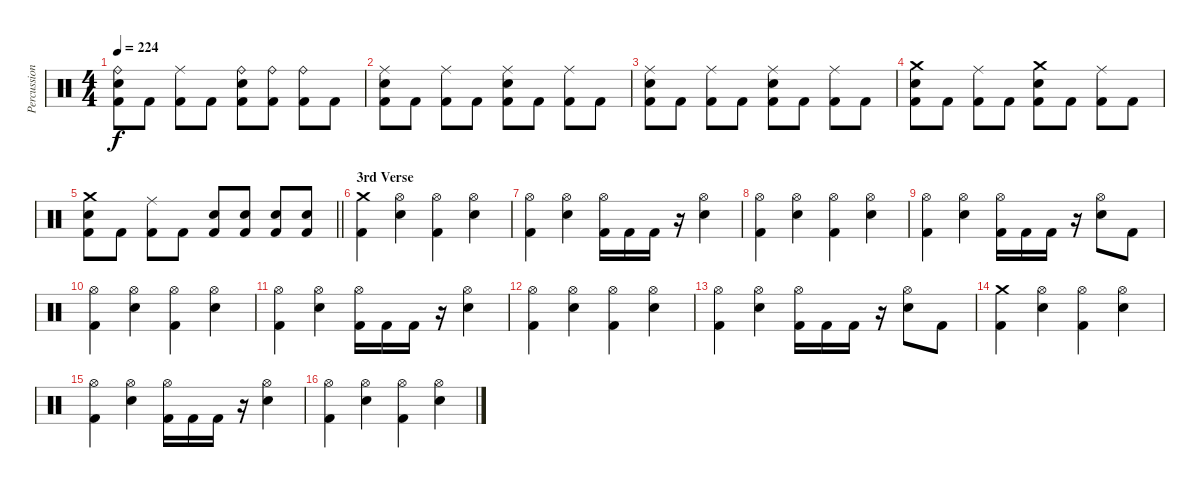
\track ("Percussion" "Percussion") {instrument percussion}
\staff {score}
\articulation defaults
\ts (4 4)
\tempo 224
\clef neutral
\ks c
("Kick (hit) 2" "Snare (hit) 2" "Ride (bell)").8{dy f} "Kick (hit) 2".8 ("Kick (hit) 2" "Ride (middle)").8 "Kick (hit) 2".8 ("Kick (hit) 2" "Snare (hit) 2" "Ride (bell)").8 ("Kick (hit) 2" "Ride (bell)").8 ("Kick (hit) 2" "Ride (bell)").8 "Kick (hit) 2".8 |
("Kick (hit) 2" "Snare (hit) 2" "Ride (middle)").8 "Kick (hit) 2".8 ("Kick (hit) 2" "Ride (middle)").8 "Kick (hit) 2".8 ("Kick (hit) 2" "Snare (hit) 2" "Ride (middle)").8 "Kick (hit) 2".8 ("Kick (hit) 2" "Ride (middle)").8 "Kick (hit) 2".8 |
("Kick (hit) 2" "Snare (hit) 2" "Ride (middle)").8 "Kick (hit) 2".8 ("Kick (hit) 2" "Ride (middle)").8 "Kick (hit) 2".8 ("Kick (hit) 2" "Snare (hit) 2" "Ride (middle)").8 "Kick (hit) 2".8 ("Kick (hit) 2" "Ride (middle)").8 "Kick (hit) 2".8 |
("Kick (hit) 2" "Snare (hit) 2" "Crash medium (hit)").8 "Kick (hit) 2".8 ("Kick (hit) 2" "Ride (middle)").8 "Kick (hit) 2".8 ("Kick (hit) 2" "Snare (hit) 2" "Crash medium (hit)").8 "Kick (hit) 2".8 ("Kick (hit) 2" "Ride (middle)").8 "Kick (hit) 2".8 |
\barLineRight lightlight
("Kick (hit) 2" "Snare (hit) 2" "Crash medium (hit)").8 "Kick (hit) 2".8 ("Kick (hit) 2" "Ride (middle)").8 "Kick (hit) 2".8 ("Kick (hit) 2" "Snare (hit) 2").8 ("Kick (hit) 2" "Snare (hit) 2").8 ("Kick (hit) 2" "Snare (hit) 2").8 ("Kick (hit) 2" "Snare (hit) 2").8 |
\section ("" "3rd Verse")
("Kick (hit) 2" "Crash medium (hit)").4 ("Snare (hit) 2" "Hi-Hat (open)").4 ("Kick (hit) 2" "Hi-Hat (open)").4 ("Snare (hit) 2" "Hi-Hat (open)").4 |
("Kick (hit) 2" "Hi-Hat (open)").4 ("Snare (hit) 2" "Hi-Hat (open)").4 ("Kick (hit) 2" "Hi-Hat (open)").16 "Kick (hit) 2".16 "Kick (hit) 2".16 r.16 ("Snare (hit) 2" "Hi-Hat (open)").4 |
("Kick (hit) 2" "Hi-Hat (open)").4 ("Snare (hit) 2" "Hi-Hat (open)").4 ("Kick (hit) 2" "Hi-Hat (open)").4 ("Snare (hit) 2" "Hi-Hat (open)").4 |
("Kick (hit) 2" "Hi-Hat (open)").4 ("Snare (hit) 2" "Hi-Hat (open)").4 ("Kick (hit) 2" "Hi-Hat (open)").16 "Kick (hit) 2".16 "Kick (hit) 2".16 r.16 ("Snare (hit) 2" "Hi-Hat (open)").8 "Kick (hit) 2".8 |
("Kick (hit) 2" "Hi-Hat (open)").4 ("Snare (hit) 2" "Hi-Hat (open)").4 ("Kick (hit) 2" "Hi-Hat (open)").4 ("Snare (hit) 2" "Hi-Hat (open)").4 |
("Kick (hit) 2" "Hi-Hat (open)").4 ("Snare (hit) 2" "Hi-Hat (open)").4 ("Kick (hit) 2" "Hi-Hat (open)").16 "Kick (hit) 2".16 "Kick (hit) 2".16 r.16 ("Snare (hit) 2" "Hi-Hat (open)").4 |
("Kick (hit) 2" "Hi-Hat (open)").4 ("Snare (hit) 2" "Hi-Hat (open)").4 ("Kick (hit) 2" "Hi-Hat (open)").4 ("Snare (hit) 2" "Hi-Hat (open)").4 |
("Kick (hit) 2" "Hi-Hat (open)").4 ("Snare (hit) 2" "Hi-Hat (open)").4 ("Kick (hit) 2" "Hi-Hat (open)").16 "Kick (hit) 2".16 "Kick (hit) 2".16 r.16 ("Snare (hit) 2" "Hi-Hat (open)").8 "Kick (hit) 2".8 |
("Kick (hit) 2" "Crash medium (hit)").4 ("Snare (hit) 2" "Hi-Hat (open)").4 ("Kick (hit) 2" "Hi-Hat (open)").4 ("Snare (hit) 2" "Hi-Hat (open)").4 |
("Kick (hit) 2" "Hi-Hat (open)").4 ("Snare (hit) 2" "Hi-Hat (open)").4 ("Kick (hit) 2" "Hi-Hat (open)").16 "Kick (hit) 2".16 "Kick (hit) 2".16 r.16 ("Snare (hit) 2" "Hi-Hat (open)").4 |
("Kick (hit) 2" "Hi-Hat (open)").4 ("Snare (hit) 2" "Hi-Hat (open)").4 ("Kick (hit) 2" "Hi-Hat (open)").4 ("Snare (hit) 2" "Hi-Hat (open)").4
